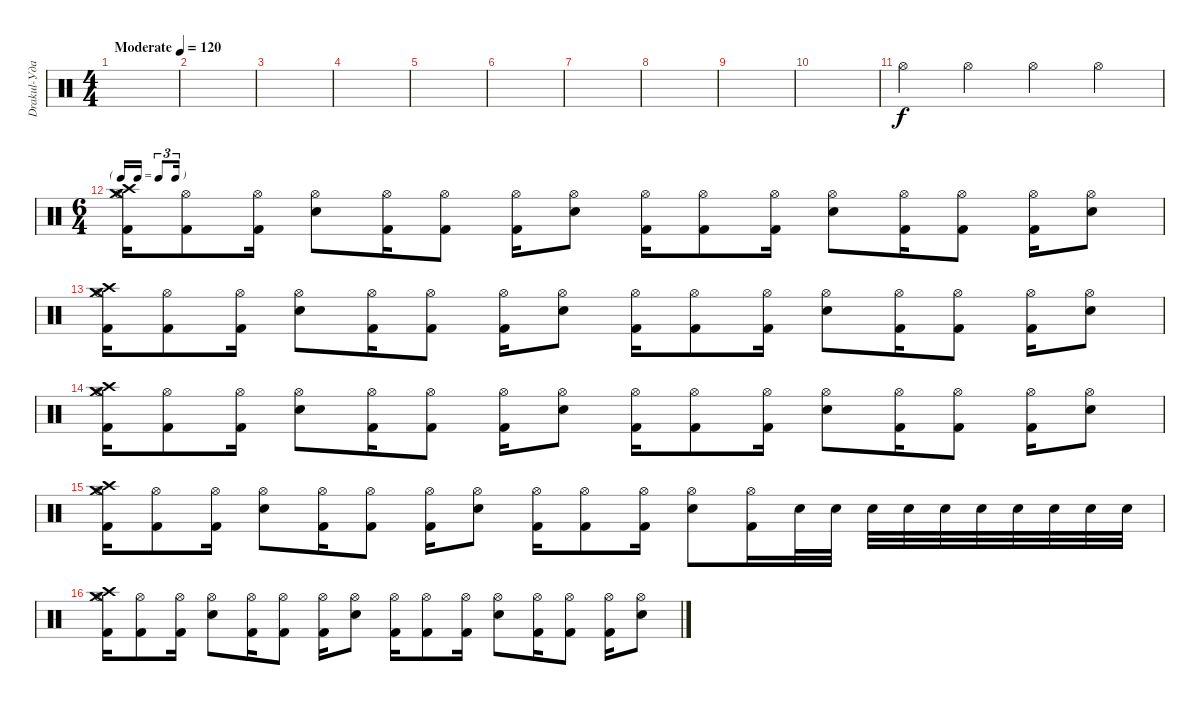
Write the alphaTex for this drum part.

\track ("Drakul-Ударные " "Drakul-Уда") {instrument percussion}
\staff {score}
\articulation defaults
\ts (4 4)
\tempo (120 "Moderate")
\clef neutral
\ks c
|
|
|
|
|
|
|
|
|
|
"Hi-Hat (open)".4 "Hi-Hat (open)".4 "Hi-Hat (open)".4 "Hi-Hat (open)".4 |
\ts (6 4)
\tf triplet16th
("Kick (hit) 2" "Hi-Hat (open)" "Crash high (hit)" "Crash medium (hit)").16 ("Kick (hit) 2" "Hi-Hat (open)").8 ("Kick (hit) 2" "Hi-Hat (open)").16 ("Electric Snare (hit)" "Hi-Hat (open)").8 ("Kick (hit) 2" "Hi-Hat (open)").16 ("Kick (hit) 2" "Hi-Hat (open)").8 ("Kick (hit) 2" "Hi-Hat (open)").16 ("Electric Snare (hit)" "Hi-Hat (open)").8 ("Kick (hit) 2" "Hi-Hat (open)").16 ("Kick (hit) 2" "Hi-Hat (open)").8 ("Kick (hit) 2" "Hi-Hat (open)").16 ("Electric Snare (hit)" "Hi-Hat (open)").8 ("Kick (hit) 2" "Hi-Hat (open)").16 ("Kick (hit) 2" "Hi-Hat (open)").8 ("Kick (hit) 2" "Hi-Hat (open)").16 ("Electric Snare (hit)" "Hi-Hat (open)").8 |
("Kick (hit) 2" "Hi-Hat (open)" "Crash high (hit)" "Crash medium (hit)").16 ("Kick (hit) 2" "Hi-Hat (open)").8 ("Kick (hit) 2" "Hi-Hat (open)").16 ("Electric Snare (hit)" "Hi-Hat (open)").8 ("Kick (hit) 2" "Hi-Hat (open)").16 ("Kick (hit) 2" "Hi-Hat (open)").8 ("Kick (hit) 2" "Hi-Hat (open)").16 ("Electric Snare (hit)" "Hi-Hat (open)").8 ("Kick (hit) 2" "Hi-Hat (open)").16 ("Kick (hit) 2" "Hi-Hat (open)").8 ("Kick (hit) 2" "Hi-Hat (open)").16 ("Electric Snare (hit)" "Hi-Hat (open)").8 ("Kick (hit) 2" "Hi-Hat (open)").16 ("Kick (hit) 2" "Hi-Hat (open)").8 ("Kick (hit) 2" "Hi-Hat (open)").16 ("Electric Snare (hit)" "Hi-Hat (open)").8 |
("Kick (hit) 2" "Hi-Hat (open)" "Crash high (hit)" "Crash medium (hit)").16 ("Kick (hit) 2" "Hi-Hat (open)").8 ("Kick (hit) 2" "Hi-Hat (open)").16 ("Electric Snare (hit)" "Hi-Hat (open)").8 ("Kick (hit) 2" "Hi-Hat (open)").16 ("Kick (hit) 2" "Hi-Hat (open)").8 ("Kick (hit) 2" "Hi-Hat (open)").16 ("Electric Snare (hit)" "Hi-Hat (open)").8 ("Kick (hit) 2" "Hi-Hat (open)").16 ("Kick (hit) 2" "Hi-Hat (open)").8 ("Kick (hit) 2" "Hi-Hat (open)").16 ("Electric Snare (hit)" "Hi-Hat (open)").8 ("Kick (hit) 2" "Hi-Hat (open)").16 ("Kick (hit) 2" "Hi-Hat (open)").8 ("Kick (hit) 2" "Hi-Hat (open)").16 ("Electric Snare (hit)" "Hi-Hat (open)").8 |
("Kick (hit) 2" "Hi-Hat (open)" "Crash high (hit)" "Crash medium (hit)").16 ("Kick (hit) 2" "Hi-Hat (open)").8 ("Kick (hit) 2" "Hi-Hat (open)").16 ("Electric Snare (hit)" "Hi-Hat (open)").8 ("Kick (hit) 2" "Hi-Hat (open)").16 ("Kick (hit) 2" "Hi-Hat (open)").8 ("Kick (hit) 2" "Hi-Hat (open)").16 ("Electric Snare (hit)" "Hi-Hat (open)").8 ("Kick (hit) 2" "Hi-Hat (open)").16 ("Kick (hit) 2" "Hi-Hat (open)").8 ("Kick (hit) 2" "Hi-Hat (open)").16 ("Electric Snare (hit)" "Hi-Hat (open)").8 ("Kick (hit) 2" "Hi-Hat (open)").16 "Electric Snare (hit)".32 "Electric Snare (hit)".32 "Electric Snare (hit)".32 "Electric Snare (hit)".32 "Electric Snare (hit)".32 "Electric Snare (hit)".32 "Electric Snare (hit)".32 "Electric Snare (hit)".32 "Electric Snare (hit)".32 "Electric Snare (hit)".32 |
("Kick (hit) 2" "Hi-Hat (open)" "Crash high (hit)" "Crash medium (hit)").16 ("Kick (hit) 2" "Hi-Hat (open)").8 ("Kick (hit) 2" "Hi-Hat (open)").16 ("Electric Snare (hit)" "Hi-Hat (open)").8 ("Kick (hit) 2" "Hi-Hat (open)").16 ("Kick (hit) 2" "Hi-Hat (open)").8 ("Kick (hit) 2" "Hi-Hat (open)").16 ("Electric Snare (hit)" "Hi-Hat (open)").8 ("Kick (hit) 2" "Hi-Hat (open)").16 ("Kick (hit) 2" "Hi-Hat (open)").8 ("Kick (hit) 2" "Hi-Hat (open)").16 ("Electric Snare (hit)" "Hi-Hat (open)").8 ("Kick (hit) 2" "Hi-Hat (open)").16 ("Kick (hit) 2" "Hi-Hat (open)").8 ("Kick (hit) 2" "Hi-Hat (open)").16 ("Electric Snare (hit)" "Hi-Hat (open)").8
